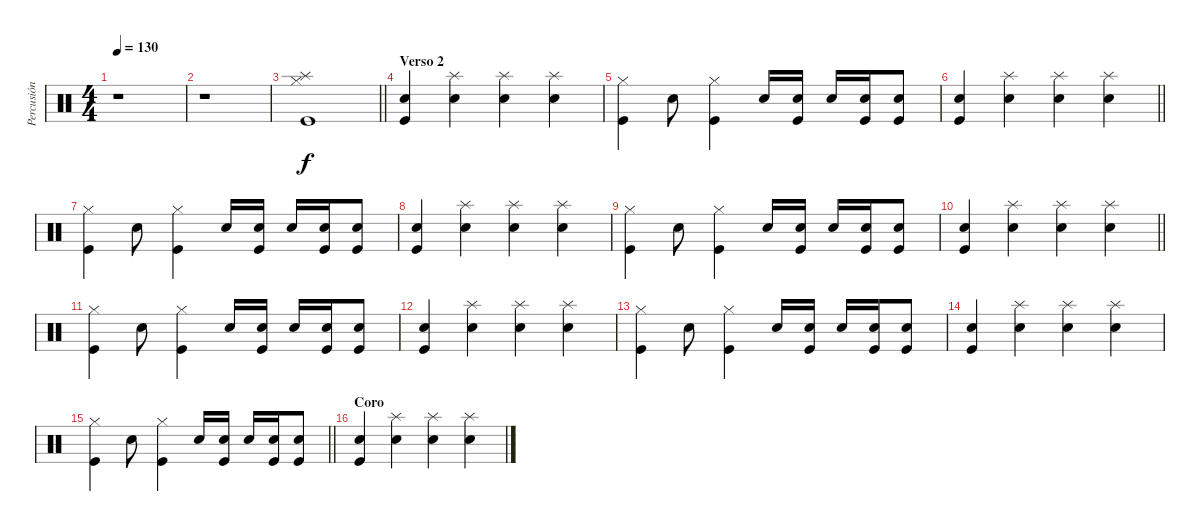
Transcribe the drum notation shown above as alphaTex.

\track ("Percusión" "Percusión") {instrument percussion}
\staff {score}
\articulation defaults
\ts (4 4)
\tempo 130
\clef neutral
\ks c
r.1{dy f} |
r.1 |
\barLineRight lightlight
("Splash (hit)" "Hi-Hat (closed)" "Kick (hit)").1 |
\section ("" "Verso 2")
("Snare (hit) 2" "Kick (hit)").4 ("Splash (hit)" "Snare (hit) 2").4 ("Splash (hit)" "Snare (hit) 2").4 ("Splash (hit)" "Snare (hit) 2").4 |
("Hi-Hat (closed)" "Kick (hit)").4 "Snare (hit) 2".8 ("Hi-Hat (closed)" "Kick (hit)").4 "Snare (hit) 2".16 ("Snare (hit) 2" "Kick (hit)").16 "Snare (hit) 2".16 ("Snare (hit) 2" "Kick (hit)").16 ("Snare (hit) 2" "Kick (hit)").8 |
\barLineRight lightlight
("Snare (hit) 2" "Kick (hit)").4 ("Splash (hit)" "Snare (hit) 2").4 ("Splash (hit)" "Snare (hit) 2").4 ("Splash (hit)" "Snare (hit) 2").4 |
\section ("" "")
("Hi-Hat (closed)" "Kick (hit)").4 "Snare (hit) 2".8 ("Hi-Hat (closed)" "Kick (hit)").4 "Snare (hit) 2".16 ("Snare (hit) 2" "Kick (hit)").16 "Snare (hit) 2".16 ("Snare (hit) 2" "Kick (hit)").16 ("Snare (hit) 2" "Kick (hit)").8 |
("Snare (hit) 2" "Kick (hit)").4 ("Splash (hit)" "Snare (hit) 2").4 ("Splash (hit)" "Snare (hit) 2").4 ("Splash (hit)" "Snare (hit) 2").4 |
("Hi-Hat (closed)" "Kick (hit)").4 "Snare (hit) 2".8 ("Hi-Hat (closed)" "Kick (hit)").4 "Snare (hit) 2".16 ("Snare (hit) 2" "Kick (hit)").16 "Snare (hit) 2".16 ("Snare (hit) 2" "Kick (hit)").16 ("Snare (hit) 2" "Kick (hit)").8 |
\barLineRight lightlight
("Snare (hit) 2" "Kick (hit)").4 ("Splash (hit)" "Snare (hit) 2").4 ("Splash (hit)" "Snare (hit) 2").4 ("Splash (hit)" "Snare (hit) 2").4 |
("Hi-Hat (closed)" "Kick (hit)").4 "Snare (hit) 2".8 ("Hi-Hat (closed)" "Kick (hit)").4 "Snare (hit) 2".16 ("Snare (hit) 2" "Kick (hit)").16 "Snare (hit) 2".16 ("Snare (hit) 2" "Kick (hit)").16 ("Snare (hit) 2" "Kick (hit)").8 |
("Snare (hit) 2" "Kick (hit)").4 ("Splash (hit)" "Snare (hit) 2").4 ("Splash (hit)" "Snare (hit) 2").4 ("Splash (hit)" "Snare (hit) 2").4 |
("Hi-Hat (closed)" "Kick (hit)").4 "Snare (hit) 2".8 ("Hi-Hat (closed)" "Kick (hit)").4 "Snare (hit) 2".16 ("Snare (hit) 2" "Kick (hit)").16 "Snare (hit) 2".16 ("Snare (hit) 2" "Kick (hit)").16 ("Snare (hit) 2" "Kick (hit)").8 |
("Snare (hit) 2" "Kick (hit)").4 ("Splash (hit)" "Snare (hit) 2").4 ("Splash (hit)" "Snare (hit) 2").4 ("Splash (hit)" "Snare (hit) 2").4 |
\barLineRight lightlight
("Hi-Hat (closed)" "Kick (hit)").4 "Snare (hit) 2".8 ("Hi-Hat (closed)" "Kick (hit)").4 "Snare (hit) 2".16 ("Snare (hit) 2" "Kick (hit)").16 "Snare (hit) 2".16 ("Snare (hit) 2" "Kick (hit)").16 ("Snare (hit) 2" "Kick (hit)").8 |
\section ("" "Coro")
("Snare (hit) 2" "Kick (hit)").4 ("Splash (hit)" "Snare (hit) 2").4 ("Splash (hit)" "Snare (hit) 2").4 ("Splash (hit)" "Snare (hit) 2").4
